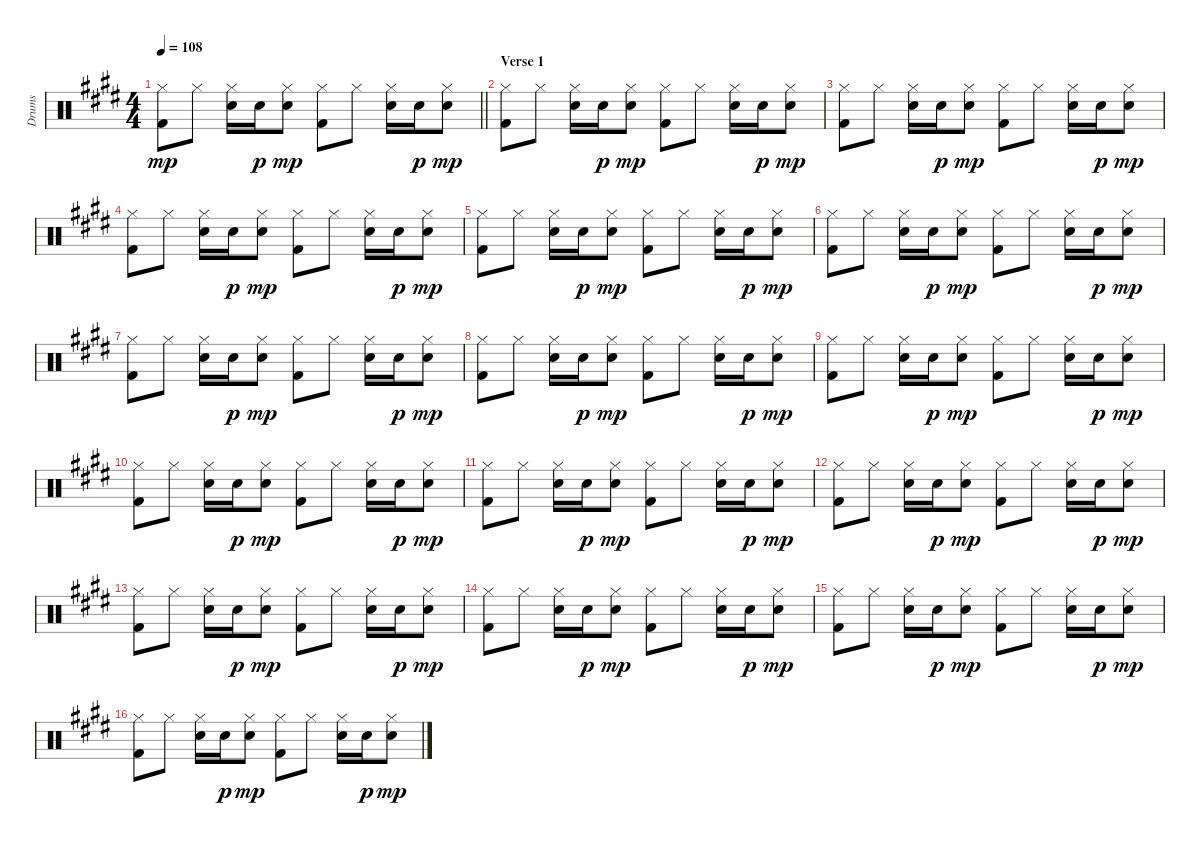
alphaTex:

\track ("Drums" "Drums") {instrument percussion bank 7}
\staff {score}
\articulation defaults
\ts (4 4)
\tempo 108
\clef neutral
\barLineRight lightlight
\ks e
("Hi-Hat (closed)" "Kick (hit) 2").8{dy mp} "Hi-Hat (closed)".8 ("Electric Snare (hit)" "Hi-Hat (closed)").16 "Electric Snare (hit)".16{dy p} ("Electric Snare (hit)" "Hi-Hat (closed)").8{dy mp} ("Hi-Hat (closed)" "Kick (hit) 2").8 "Hi-Hat (closed)".8 ("Electric Snare (hit)" "Hi-Hat (closed)").16 "Electric Snare (hit)".16{dy p} ("Electric Snare (hit)" "Hi-Hat (closed)").8{dy mp} |
\section ("" "Verse 1")
("Hi-Hat (closed)" "Kick (hit) 2").8 "Hi-Hat (closed)".8 ("Electric Snare (hit)" "Hi-Hat (closed)").16 "Electric Snare (hit)".16{dy p} ("Electric Snare (hit)" "Hi-Hat (closed)").8{dy mp} ("Hi-Hat (closed)" "Kick (hit) 2").8 "Hi-Hat (closed)".8 ("Electric Snare (hit)" "Hi-Hat (closed)").16 "Electric Snare (hit)".16{dy p} ("Electric Snare (hit)" "Hi-Hat (closed)").8{dy mp} |
("Hi-Hat (closed)" "Kick (hit) 2").8 "Hi-Hat (closed)".8 ("Electric Snare (hit)" "Hi-Hat (closed)").16 "Electric Snare (hit)".16{dy p} ("Electric Snare (hit)" "Hi-Hat (closed)").8{dy mp} ("Hi-Hat (closed)" "Kick (hit) 2").8 "Hi-Hat (closed)".8 ("Electric Snare (hit)" "Hi-Hat (closed)").16 "Electric Snare (hit)".16{dy p} ("Electric Snare (hit)" "Hi-Hat (closed)").8{dy mp} |
("Hi-Hat (closed)" "Kick (hit) 2").8 "Hi-Hat (closed)".8 ("Electric Snare (hit)" "Hi-Hat (closed)").16 "Electric Snare (hit)".16{dy p} ("Electric Snare (hit)" "Hi-Hat (closed)").8{dy mp} ("Hi-Hat (closed)" "Kick (hit) 2").8 "Hi-Hat (closed)".8 ("Electric Snare (hit)" "Hi-Hat (closed)").16 "Electric Snare (hit)".16{dy p} ("Electric Snare (hit)" "Hi-Hat (closed)").8{dy mp} |
("Hi-Hat (closed)" "Kick (hit) 2").8 "Hi-Hat (closed)".8 ("Electric Snare (hit)" "Hi-Hat (closed)").16 "Electric Snare (hit)".16{dy p} ("Electric Snare (hit)" "Hi-Hat (closed)").8{dy mp} ("Hi-Hat (closed)" "Kick (hit) 2").8 "Hi-Hat (closed)".8 ("Electric Snare (hit)" "Hi-Hat (closed)").16 "Electric Snare (hit)".16{dy p} ("Electric Snare (hit)" "Hi-Hat (closed)").8{dy mp} |
("Hi-Hat (closed)" "Kick (hit) 2").8 "Hi-Hat (closed)".8 ("Electric Snare (hit)" "Hi-Hat (closed)").16 "Electric Snare (hit)".16{dy p} ("Electric Snare (hit)" "Hi-Hat (closed)").8{dy mp} ("Hi-Hat (closed)" "Kick (hit) 2").8 "Hi-Hat (closed)".8 ("Electric Snare (hit)" "Hi-Hat (closed)").16 "Electric Snare (hit)".16{dy p} ("Electric Snare (hit)" "Hi-Hat (closed)").8{dy mp} |
("Hi-Hat (closed)" "Kick (hit) 2").8 "Hi-Hat (closed)".8 ("Electric Snare (hit)" "Hi-Hat (closed)").16 "Electric Snare (hit)".16{dy p} ("Electric Snare (hit)" "Hi-Hat (closed)").8{dy mp} ("Hi-Hat (closed)" "Kick (hit) 2").8 "Hi-Hat (closed)".8 ("Electric Snare (hit)" "Hi-Hat (closed)").16 "Electric Snare (hit)".16{dy p} ("Electric Snare (hit)" "Hi-Hat (closed)").8{dy mp} |
("Hi-Hat (closed)" "Kick (hit) 2").8 "Hi-Hat (closed)".8 ("Electric Snare (hit)" "Hi-Hat (closed)").16 "Electric Snare (hit)".16{dy p} ("Electric Snare (hit)" "Hi-Hat (closed)").8{dy mp} ("Hi-Hat (closed)" "Kick (hit) 2").8 "Hi-Hat (closed)".8 ("Electric Snare (hit)" "Hi-Hat (closed)").16 "Electric Snare (hit)".16{dy p} ("Electric Snare (hit)" "Hi-Hat (closed)").8{dy mp} |
("Hi-Hat (closed)" "Kick (hit) 2").8 "Hi-Hat (closed)".8 ("Electric Snare (hit)" "Hi-Hat (closed)").16 "Electric Snare (hit)".16{dy p} ("Electric Snare (hit)" "Hi-Hat (closed)").8{dy mp} ("Hi-Hat (closed)" "Kick (hit) 2").8 "Hi-Hat (closed)".8 ("Electric Snare (hit)" "Hi-Hat (closed)").16 "Electric Snare (hit)".16{dy p} ("Electric Snare (hit)" "Hi-Hat (closed)").8{dy mp} |
("Hi-Hat (closed)" "Kick (hit) 2").8 "Hi-Hat (closed)".8 ("Electric Snare (hit)" "Hi-Hat (closed)").16 "Electric Snare (hit)".16{dy p} ("Electric Snare (hit)" "Hi-Hat (closed)").8{dy mp} ("Hi-Hat (closed)" "Kick (hit) 2").8 "Hi-Hat (closed)".8 ("Electric Snare (hit)" "Hi-Hat (closed)").16 "Electric Snare (hit)".16{dy p} ("Electric Snare (hit)" "Hi-Hat (closed)").8{dy mp} |
("Hi-Hat (closed)" "Kick (hit) 2").8 "Hi-Hat (closed)".8 ("Electric Snare (hit)" "Hi-Hat (closed)").16 "Electric Snare (hit)".16{dy p} ("Electric Snare (hit)" "Hi-Hat (closed)").8{dy mp} ("Hi-Hat (closed)" "Kick (hit) 2").8 "Hi-Hat (closed)".8 ("Electric Snare (hit)" "Hi-Hat (closed)").16 "Electric Snare (hit)".16{dy p} ("Electric Snare (hit)" "Hi-Hat (closed)").8{dy mp} |
("Hi-Hat (closed)" "Kick (hit) 2").8 "Hi-Hat (closed)".8 ("Electric Snare (hit)" "Hi-Hat (closed)").16 "Electric Snare (hit)".16{dy p} ("Electric Snare (hit)" "Hi-Hat (closed)").8{dy mp} ("Hi-Hat (closed)" "Kick (hit) 2").8 "Hi-Hat (closed)".8 ("Electric Snare (hit)" "Hi-Hat (closed)").16 "Electric Snare (hit)".16{dy p} ("Electric Snare (hit)" "Hi-Hat (closed)").8{dy mp} |
("Hi-Hat (closed)" "Kick (hit) 2").8 "Hi-Hat (closed)".8 ("Electric Snare (hit)" "Hi-Hat (closed)").16 "Electric Snare (hit)".16{dy p} ("Electric Snare (hit)" "Hi-Hat (closed)").8{dy mp} ("Hi-Hat (closed)" "Kick (hit) 2").8 "Hi-Hat (closed)".8 ("Electric Snare (hit)" "Hi-Hat (closed)").16 "Electric Snare (hit)".16{dy p} ("Electric Snare (hit)" "Hi-Hat (closed)").8{dy mp} |
("Hi-Hat (closed)" "Kick (hit) 2").8 "Hi-Hat (closed)".8 ("Electric Snare (hit)" "Hi-Hat (closed)").16 "Electric Snare (hit)".16{dy p} ("Electric Snare (hit)" "Hi-Hat (closed)").8{dy mp} ("Hi-Hat (closed)" "Kick (hit) 2").8 "Hi-Hat (closed)".8 ("Electric Snare (hit)" "Hi-Hat (closed)").16 "Electric Snare (hit)".16{dy p} ("Electric Snare (hit)" "Hi-Hat (closed)").8{dy mp} |
("Hi-Hat (closed)" "Kick (hit) 2").8 "Hi-Hat (closed)".8 ("Electric Snare (hit)" "Hi-Hat (closed)").16 "Electric Snare (hit)".16{dy p} ("Electric Snare (hit)" "Hi-Hat (closed)").8{dy mp} ("Hi-Hat (closed)" "Kick (hit) 2").8 "Hi-Hat (closed)".8 ("Electric Snare (hit)" "Hi-Hat (closed)").16 "Electric Snare (hit)".16{dy p} ("Electric Snare (hit)" "Hi-Hat (closed)").8{dy mp} |
("Hi-Hat (closed)" "Kick (hit) 2").8 "Hi-Hat (closed)".8 ("Electric Snare (hit)" "Hi-Hat (closed)").16 "Electric Snare (hit)".16{dy p} ("Electric Snare (hit)" "Hi-Hat (closed)").8{dy mp} ("Hi-Hat (closed)" "Kick (hit) 2").8 "Hi-Hat (closed)".8 ("Electric Snare (hit)" "Hi-Hat (closed)").16 "Electric Snare (hit)".16{dy p} ("Electric Snare (hit)" "Hi-Hat (closed)").8{dy mp}
